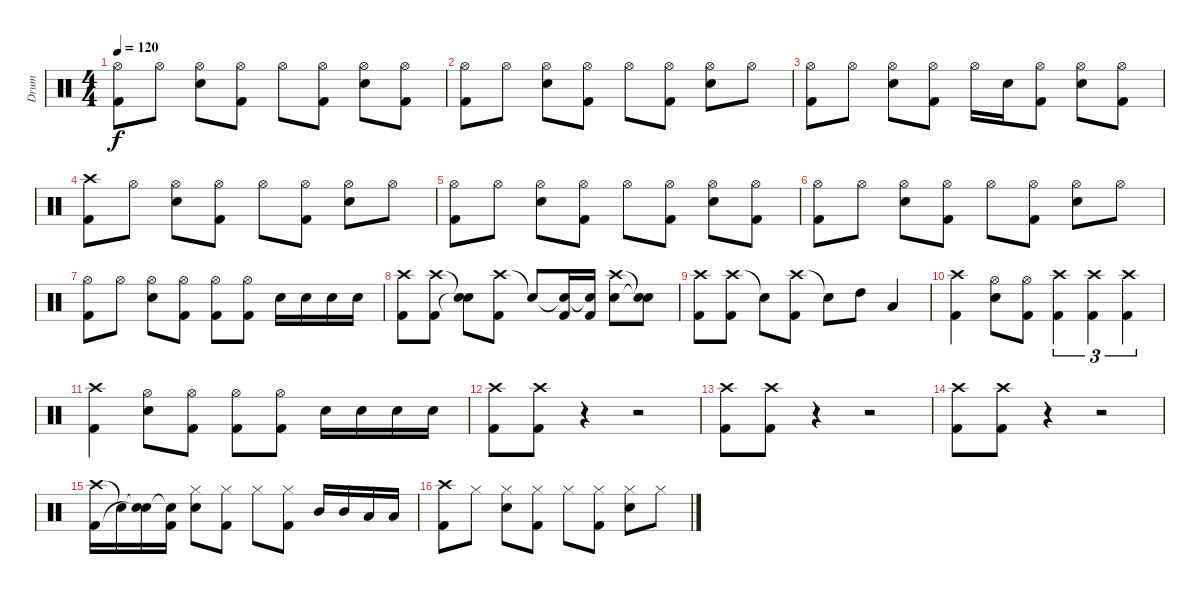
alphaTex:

\track ("Drum" "Drum") {instrument percussion}
\staff {score}
\articulation defaults
\ts (4 4)
\tempo 120
\clef neutral
\ks c
("Hi-Hat (open)" "Kick (hit) 2").8{dy f} "Hi-Hat (open)".8 ("Hi-Hat (open)" "Snare (hit) 2").8 ("Hi-Hat (open)" "Kick (hit) 2").8 "Hi-Hat (open)".8 ("Hi-Hat (open)" "Kick (hit) 2").8 ("Hi-Hat (open)" "Snare (hit) 2").8 ("Hi-Hat (open)" "Kick (hit) 2").8 |
("Hi-Hat (open)" "Kick (hit) 2").8 "Hi-Hat (open)".8 ("Hi-Hat (open)" "Snare (hit) 2").8 ("Hi-Hat (open)" "Kick (hit) 2").8 "Hi-Hat (open)".8 ("Hi-Hat (open)" "Kick (hit) 2").8 ("Hi-Hat (open)" "Snare (hit) 2").8 "Hi-Hat (open)".8 |
("Hi-Hat (open)" "Kick (hit) 2").8 "Hi-Hat (open)".8 ("Hi-Hat (open)" "Snare (hit) 2").8 ("Hi-Hat (open)" "Kick (hit) 2").8 "Hi-Hat (open)".16 "Snare (hit) 2".16 ("Hi-Hat (open)" "Kick (hit) 2").8 ("Hi-Hat (open)" "Snare (hit) 2").8 ("Hi-Hat (open)" "Kick (hit) 2").8 |
("Crash high (hit)" "Kick (hit) 2").8 "Hi-Hat (open)".8 ("Hi-Hat (open)" "Snare (hit) 2").8 ("Hi-Hat (open)" "Kick (hit) 2").8 "Hi-Hat (open)".8 ("Hi-Hat (open)" "Kick (hit) 2").8 ("Hi-Hat (open)" "Snare (hit) 2").8 "Hi-Hat (open)".8 |
("Hi-Hat (open)" "Kick (hit) 2").8 "Hi-Hat (open)".8 ("Hi-Hat (open)" "Snare (hit) 2").8 ("Hi-Hat (open)" "Kick (hit) 2").8 "Hi-Hat (open)".8 ("Hi-Hat (open)" "Kick (hit) 2").8 ("Hi-Hat (open)" "Snare (hit) 2").8 ("Hi-Hat (open)" "Kick (hit) 2").8 |
("Hi-Hat (open)" "Kick (hit) 2").8 "Hi-Hat (open)".8 ("Hi-Hat (open)" "Snare (hit) 2").8 ("Hi-Hat (open)" "Kick (hit) 2").8 "Hi-Hat (open)".8 ("Hi-Hat (open)" "Kick (hit) 2").8 ("Hi-Hat (open)" "Snare (hit) 2").8 "Hi-Hat (open)".8 |
("Hi-Hat (open)" "Kick (hit) 2").8 "Hi-Hat (open)".8 ("Hi-Hat (open)" "Snare (hit) 2").8 ("Hi-Hat (open)" "Kick (hit) 2").8 ("Hi-Hat (open)" "Kick (hit) 2").8 ("Hi-Hat (open)" "Kick (hit) 2").8 "Snare (hit) 2".16 "Snare (hit) 2".16 "Snare (hit) 2".16 "Snare (hit) 2".16 |
("Crash high (hit)" "Kick (hit) 2").8 ("Crash high (hit)" "Kick (hit) 2").8 ("Snare (hit)"{t} "Snare (hit)"{t}).8 ("Crash high (hit)" "Kick (hit) 2").8 "Snare (hit)"{t}.8 ("Snare (hit)"{t} "Kick (hit) 2").16 ("Snare (hit)"{t} "Kick (hit) 2").16 ("Crash high (hit)" "Snare (hit) 2").8 ("Snare (hit)"{t} "Snare (hit)"{t}).8 |
("Crash high (hit)" "Kick (hit) 2").8 ("Crash high (hit)" "Kick (hit) 2").8 "Snare (hit)"{t}.8 ("Crash high (hit)" "Kick (hit) 2").8 "Snare (hit)"{t}.8 "High Tom (hit)".8 "Low Tom (hit)".4 |
("Crash high (hit)" "Kick (hit) 2").4 ("Hi-Hat (open)" "Snare (hit) 2").8 ("Hi-Hat (open)" "Kick (hit) 2").8 ("Crash high (hit)" "Kick (hit) 2").4{tu (3 2)} ("Crash high (hit)" "Kick (hit) 2").4{tu (3 2)} ("Crash high (hit)" "Kick (hit) 2").4{tu (3 2)} |
("Crash high (hit)" "Kick (hit) 2").4 ("Hi-Hat (open)" "Snare (hit) 2").8 ("Hi-Hat (open)" "Kick (hit) 2").8 ("Hi-Hat (open)" "Kick (hit) 2").8 ("Hi-Hat (open)" "Kick (hit) 2").8 "Snare (hit) 2".16 "Snare (hit) 2".16 "Snare (hit) 2".16 "Snare (hit) 2".16 |
("Crash high (hit)" "Kick (hit) 2").8 ("Crash high (hit)" "Kick (hit) 2").8 r.4 r.2 |
("Crash high (hit)" "Kick (hit) 2").8 ("Crash high (hit)" "Kick (hit) 2").8 r.4 r.2 |
("Crash high (hit)" "Kick (hit) 2").8 ("Crash high (hit)" "Kick (hit) 2").8 r.4 r.2 |
("Crash high (hit)" "Kick (hit) 2").16 "Snare (hit)"{t}.16 ("Snare (hit)"{t} "Snare (hit)"{t}).16 ("Snare (hit)"{t} "Kick (hit) 2").16 ("Hi-Hat (closed)" "Snare (hit) 2").8 ("Hi-Hat (closed)" "Kick (hit) 2").8 "Hi-Hat (closed)".8 ("Hi-Hat (closed)" "Kick (hit) 2").8 "Mid Tom (hit)".16 "Mid Tom (hit)".16 "Low Tom (hit)".16 "Low Tom (hit)".16 |
("Crash high (hit)" "Kick (hit) 2").8 "Hi-Hat (closed)".8 ("Hi-Hat (closed)" "Snare (hit) 2").8 ("Hi-Hat (closed)" "Kick (hit) 2").8 "Hi-Hat (closed)".8 ("Hi-Hat (closed)" "Kick (hit) 2").8 ("Hi-Hat (closed)" "Snare (hit) 2").8 "Hi-Hat (closed)".8
